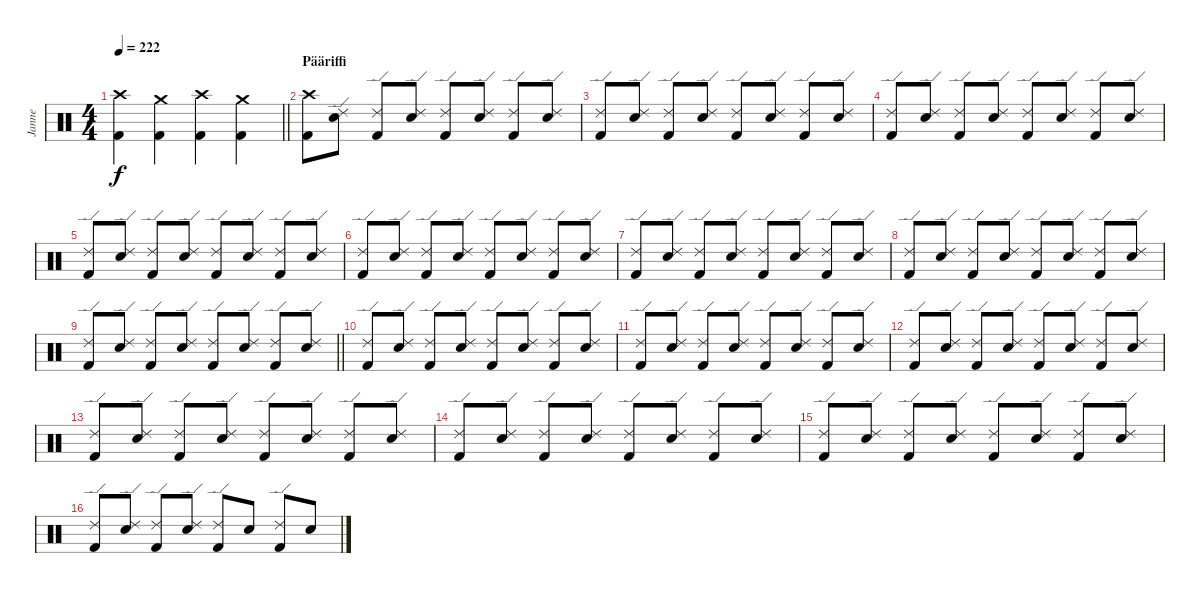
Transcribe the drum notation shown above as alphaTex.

\track ("Janne" "Janne") {instrument percussion}
\staff {score}
\articulation defaults
\ts (4 4)
\section ("" "")
\tempo 222
\clef neutral
\barLineRight lightlight
\ks c
("Crash high (hit)" "Kick (hit) 2").4{dy f} ("Crash medium (hit)" "Kick (hit) 2").4 ("Crash high (hit)" "Kick (hit) 2").4 ("Crash medium (hit)" "Kick (hit) 2").4 |
\section ("" "Pääriffi")
("Crash high (hit)" "Kick (hit) 2").8 ("Ride (edge) 2" "Electric Snare (hit)").8 ("Ride (edge) 2" "Kick (hit) 2").8 ("Ride (edge) 2" "Electric Snare (hit)").8 ("Ride (edge) 2" "Kick (hit) 2").8 ("Ride (edge) 2" "Electric Snare (hit)").8 ("Ride (edge) 2" "Kick (hit) 2").8 ("Ride (edge) 2" "Electric Snare (hit)").8 |
("Ride (edge) 2" "Kick (hit) 2").8 ("Ride (edge) 2" "Electric Snare (hit)").8 ("Ride (edge) 2" "Kick (hit) 2").8 ("Ride (edge) 2" "Electric Snare (hit)").8 ("Ride (edge) 2" "Kick (hit) 2").8 ("Ride (edge) 2" "Electric Snare (hit)").8 ("Ride (edge) 2" "Kick (hit) 2").8 ("Ride (edge) 2" "Electric Snare (hit)").8 |
("Ride (edge) 2" "Kick (hit) 2").8 ("Ride (edge) 2" "Electric Snare (hit)").8 ("Ride (edge) 2" "Kick (hit) 2").8 ("Ride (edge) 2" "Electric Snare (hit)").8 ("Ride (edge) 2" "Kick (hit) 2").8 ("Ride (edge) 2" "Electric Snare (hit)").8 ("Ride (edge) 2" "Kick (hit) 2").8 ("Ride (edge) 2" "Electric Snare (hit)").8 |
("Ride (edge) 2" "Kick (hit) 2").8 ("Ride (edge) 2" "Electric Snare (hit)").8 ("Ride (edge) 2" "Kick (hit) 2").8 ("Ride (edge) 2" "Electric Snare (hit)").8 ("Ride (edge) 2" "Kick (hit) 2").8 ("Ride (edge) 2" "Electric Snare (hit)").8 ("Ride (edge) 2" "Kick (hit) 2").8 ("Ride (edge) 2" "Electric Snare (hit)").8 |
("Ride (edge) 2" "Kick (hit) 2").8 ("Ride (edge) 2" "Electric Snare (hit)").8 ("Ride (edge) 2" "Kick (hit) 2").8 ("Ride (edge) 2" "Electric Snare (hit)").8 ("Ride (edge) 2" "Kick (hit) 2").8 ("Ride (edge) 2" "Electric Snare (hit)").8 ("Ride (edge) 2" "Kick (hit) 2").8 ("Ride (edge) 2" "Electric Snare (hit)").8 |
("Ride (edge) 2" "Kick (hit) 2").8 ("Ride (edge) 2" "Electric Snare (hit)").8 ("Ride (edge) 2" "Kick (hit) 2").8 ("Ride (edge) 2" "Electric Snare (hit)").8 ("Ride (edge) 2" "Kick (hit) 2").8 ("Ride (edge) 2" "Electric Snare (hit)").8 ("Ride (edge) 2" "Kick (hit) 2").8 ("Ride (edge) 2" "Electric Snare (hit)").8 |
("Ride (edge) 2" "Kick (hit) 2").8 ("Ride (edge) 2" "Electric Snare (hit)").8 ("Ride (edge) 2" "Kick (hit) 2").8 ("Ride (edge) 2" "Electric Snare (hit)").8 ("Ride (edge) 2" "Kick (hit) 2").8 ("Ride (edge) 2" "Electric Snare (hit)").8 ("Ride (edge) 2" "Kick (hit) 2").8 ("Ride (edge) 2" "Electric Snare (hit)").8 |
\barLineRight lightlight
("Ride (edge) 2" "Kick (hit) 2").8 ("Ride (edge) 2" "Electric Snare (hit)").8 ("Ride (edge) 2" "Kick (hit) 2").8 ("Ride (edge) 2" "Electric Snare (hit)").8 ("Ride (edge) 2" "Kick (hit) 2").8 ("Ride (edge) 2" "Electric Snare (hit)").8 ("Ride (edge) 2" "Kick (hit) 2").8 ("Ride (edge) 2" "Electric Snare (hit)").8 |
("Ride (edge) 2" "Kick (hit) 2").8 ("Ride (edge) 2" "Electric Snare (hit)").8 ("Ride (edge) 2" "Kick (hit) 2").8 ("Ride (edge) 2" "Electric Snare (hit)").8 ("Ride (edge) 2" "Kick (hit) 2").8 ("Ride (edge) 2" "Electric Snare (hit)").8 ("Ride (edge) 2" "Kick (hit) 2").8 ("Ride (edge) 2" "Electric Snare (hit)").8 |
("Ride (edge) 2" "Kick (hit) 2").8 ("Ride (edge) 2" "Electric Snare (hit)").8 ("Ride (edge) 2" "Kick (hit) 2").8 ("Ride (edge) 2" "Electric Snare (hit)").8 ("Ride (edge) 2" "Kick (hit) 2").8 ("Ride (edge) 2" "Electric Snare (hit)").8 ("Ride (edge) 2" "Kick (hit) 2").8 ("Ride (edge) 2" "Electric Snare (hit)").8 |
("Ride (edge) 2" "Kick (hit) 2").8 ("Ride (edge) 2" "Electric Snare (hit)").8 ("Ride (edge) 2" "Kick (hit) 2").8 ("Ride (edge) 2" "Electric Snare (hit)").8 ("Ride (edge) 2" "Kick (hit) 2").8 ("Ride (edge) 2" "Electric Snare (hit)").8 ("Ride (edge) 2" "Kick (hit) 2").8 ("Ride (edge) 2" "Electric Snare (hit)").8 |
("Ride (edge) 2" "Kick (hit) 2").8 ("Ride (edge) 2" "Electric Snare (hit)").8 ("Ride (edge) 2" "Kick (hit) 2").8 ("Ride (edge) 2" "Electric Snare (hit)").8 ("Ride (edge) 2" "Kick (hit) 2").8 ("Ride (edge) 2" "Electric Snare (hit)").8 ("Ride (edge) 2" "Kick (hit) 2").8 ("Ride (edge) 2" "Electric Snare (hit)").8 |
("Ride (edge) 2" "Kick (hit) 2").8 ("Ride (edge) 2" "Electric Snare (hit)").8 ("Ride (edge) 2" "Kick (hit) 2").8 ("Ride (edge) 2" "Electric Snare (hit)").8 ("Ride (edge) 2" "Kick (hit) 2").8 ("Ride (edge) 2" "Electric Snare (hit)").8 ("Ride (edge) 2" "Kick (hit) 2").8 ("Ride (edge) 2" "Electric Snare (hit)").8 |
("Ride (edge) 2" "Kick (hit) 2").8 ("Ride (edge) 2" "Electric Snare (hit)").8 ("Ride (edge) 2" "Kick (hit) 2").8 ("Ride (edge) 2" "Electric Snare (hit)").8 ("Ride (edge) 2" "Kick (hit) 2").8 ("Ride (edge) 2" "Electric Snare (hit)").8 ("Ride (edge) 2" "Kick (hit) 2").8 ("Ride (edge) 2" "Electric Snare (hit)").8 |
("Ride (edge) 2" "Kick (hit) 2").8 ("Ride (edge) 2" "Electric Snare (hit)").8 ("Ride (edge) 2" "Kick (hit) 2").8 ("Ride (edge) 2" "Electric Snare (hit)").8 ("Ride (edge) 2" "Kick (hit) 2").8 "Electric Snare (hit)".8 ("Ride (edge) 2" "Kick (hit) 2").8 "Electric Snare (hit)".8
